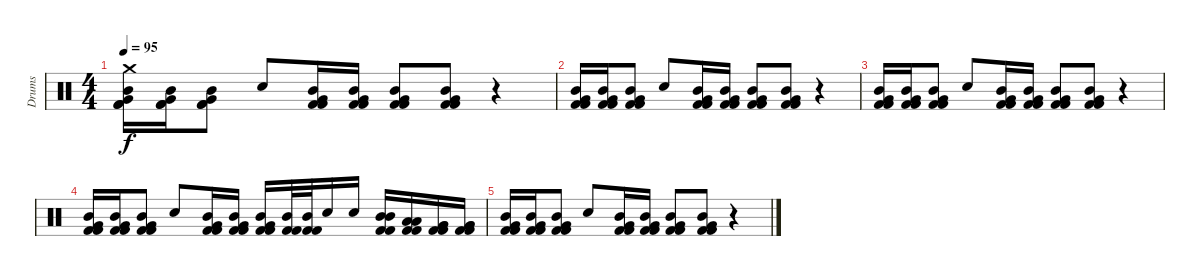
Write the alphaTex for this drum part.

\track ("Drums" "Drums") {instrument percussion}
\staff {score}
\articulation defaults
\ts (4 4)
\tempo 95
\clef neutral
\ks c
("Crash medium (hit)" "Mid Tom (hit)" "Very Low Tom (hit)" "Kick (hit) 2" "Kick (hit) 2").16{dy f} ("Mid Tom (hit)" "Very Low Tom (hit)" "Kick (hit) 2" "Kick (hit) 2").16 ("Mid Tom (hit)" "Very Low Tom (hit)" "Kick (hit) 2" "Kick (hit) 2").8 "Electric Snare (hit)".8 ("Mid Tom (hit)" "Very Low Tom (hit)" "Kick (hit) 2" "Kick (hit) 2").16 ("Mid Tom (hit)" "Very Low Tom (hit)" "Kick (hit) 2" "Kick (hit) 2").16 ("Mid Tom (hit)" "Very Low Tom (hit)" "Kick (hit) 2" "Kick (hit) 2").8 ("Mid Tom (hit)" "Very Low Tom (hit)" "Kick (hit) 2" "Kick (hit) 2").8 r.4 |
("Mid Tom (hit)" "Very Low Tom (hit)" "Kick (hit) 2" "Kick (hit) 2").16 ("Mid Tom (hit)" "Very Low Tom (hit)" "Kick (hit) 2" "Kick (hit) 2").16 ("Mid Tom (hit)" "Very Low Tom (hit)" "Kick (hit) 2" "Kick (hit) 2").8 "Electric Snare (hit)".8 ("Mid Tom (hit)" "Very Low Tom (hit)" "Kick (hit) 2" "Kick (hit) 2").16 ("Mid Tom (hit)" "Very Low Tom (hit)" "Kick (hit) 2" "Kick (hit) 2").16 ("Mid Tom (hit)" "Very Low Tom (hit)" "Kick (hit) 2" "Kick (hit) 2").8 ("Mid Tom (hit)" "Very Low Tom (hit)" "Kick (hit) 2" "Kick (hit) 2").8 r.4 |
("Mid Tom (hit)" "Very Low Tom (hit)" "Kick (hit) 2" "Kick (hit) 2").16 ("Mid Tom (hit)" "Very Low Tom (hit)" "Kick (hit) 2" "Kick (hit) 2").16 ("Mid Tom (hit)" "Very Low Tom (hit)" "Kick (hit) 2" "Kick (hit) 2").8 "Electric Snare (hit)".8 ("Mid Tom (hit)" "Very Low Tom (hit)" "Kick (hit) 2" "Kick (hit) 2").16 ("Mid Tom (hit)" "Very Low Tom (hit)" "Kick (hit) 2" "Kick (hit) 2").16 ("Mid Tom (hit)" "Very Low Tom (hit)" "Kick (hit) 2" "Kick (hit) 2").8 ("Mid Tom (hit)" "Very Low Tom (hit)" "Kick (hit) 2" "Kick (hit) 2").8 r.4 |
("Mid Tom (hit)" "Very Low Tom (hit)" "Kick (hit) 2" "Kick (hit) 2").16 ("Mid Tom (hit)" "Very Low Tom (hit)" "Kick (hit) 2" "Kick (hit) 2").16 ("Mid Tom (hit)" "Very Low Tom (hit)" "Kick (hit) 2" "Kick (hit) 2").8 "Snare (hit) 2".8 ("Mid Tom (hit)" "Very Low Tom (hit)" "Kick (hit) 2" "Kick (hit) 2").16 ("Mid Tom (hit)" "Very Low Tom (hit)" "Kick (hit) 2" "Kick (hit) 2").16 ("Mid Tom (hit)" "Very Low Tom (hit)" "Kick (hit) 2" "Kick (hit) 2").16 ("Mid Tom (hit)" "Kick (hit) 2" "Kick (hit) 2").32 ("Mid Tom (hit)" "Kick (hit) 2" "Kick (hit) 2").32 "Electric Snare (hit)".16 "Electric Snare (hit)".16 ("Mid Tom (hit)" "Mid Tom (hit)" "Kick (hit) 2" "Kick (hit) 2").16 ("Low Tom (hit)" "Low Tom (hit)" "Kick (hit) 2" "Kick (hit) 2").16 ("Very Low Tom (hit)" "Very Low Tom (hit)" "Kick (hit) 2" "Kick (hit) 2").16 ("Very Low Tom (hit)" "Very Low Tom (hit)" "Kick (hit) 2" "Kick (hit) 2").16 |
("Mid Tom (hit)" "Very Low Tom (hit)" "Kick (hit) 2" "Kick (hit) 2").16 ("Mid Tom (hit)" "Very Low Tom (hit)" "Kick (hit) 2" "Kick (hit) 2").16 ("Mid Tom (hit)" "Very Low Tom (hit)" "Kick (hit) 2" "Kick (hit) 2").8 "Electric Snare (hit)".8 ("Mid Tom (hit)" "Very Low Tom (hit)" "Kick (hit) 2" "Kick (hit) 2").16 ("Mid Tom (hit)" "Very Low Tom (hit)" "Kick (hit) 2" "Kick (hit) 2").16 ("Mid Tom (hit)" "Very Low Tom (hit)" "Kick (hit) 2" "Kick (hit) 2").8 ("Mid Tom (hit)" "Very Low Tom (hit)" "Kick (hit) 2" "Kick (hit) 2").8 r.4
